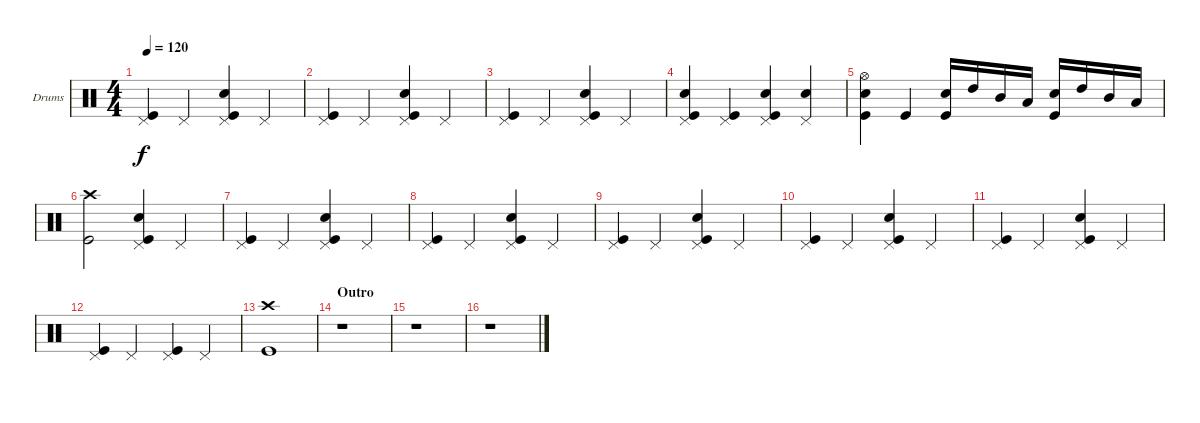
\bracketExtendMode groupsimilarinstruments
\firstSystemTrackNameOrientation horizontal
\otherSystemsTrackNameOrientation horizontal
\track ("Drumkit" "Drums") {instrument percussion}
\staff {score}
\articulation defaults
\ts (4 4)
\tempo 120
\clef neutral
\ks c
("Pedal Hi-Hat (hit)" "Kick (hit)").4{dy f} "Pedal Hi-Hat (hit)".4 ("Pedal Hi-Hat (hit)" "Snare (hit) 2" "Kick (hit)").4 "Pedal Hi-Hat (hit)".4 |
("Pedal Hi-Hat (hit)" "Kick (hit)").4 "Pedal Hi-Hat (hit)".4 ("Pedal Hi-Hat (hit)" "Snare (hit) 2" "Kick (hit)").4 "Pedal Hi-Hat (hit)".4 |
("Pedal Hi-Hat (hit)" "Kick (hit)").4 "Pedal Hi-Hat (hit)".4 ("Pedal Hi-Hat (hit)" "Snare (hit) 2" "Kick (hit)").4 "Pedal Hi-Hat (hit)".4 |
("Pedal Hi-Hat (hit)" "Snare (hit) 2" "Kick (hit)").4 ("Pedal Hi-Hat (hit)" "Kick (hit)").4 ("Pedal Hi-Hat (hit)" "Snare (hit) 2" "Kick (hit)").4 ("Pedal Hi-Hat (hit)" "Snare (hit) 2").4 |
("Hi-Hat (open)" "Snare (hit) 2" "Kick (hit)").4 "Kick (hit)".4 ("Snare (hit) 2" "Kick (hit)").16 "High Tom (hit)".16 "Mid Tom (hit)".16 "Low Tom (hit)".16 ("Snare (hit) 2" "Kick (hit)").16 "High Tom (hit)".16 "Mid Tom (hit)".16 "Low Tom (hit)".16 |
("Crash high (hit)" "Kick (hit)").2 ("Pedal Hi-Hat (hit)" "Snare (hit) 2" "Kick (hit)").4 "Pedal Hi-Hat (hit)".4 |
("Pedal Hi-Hat (hit)" "Kick (hit)").4 "Pedal Hi-Hat (hit)".4 ("Pedal Hi-Hat (hit)" "Snare (hit) 2" "Kick (hit)").4 "Pedal Hi-Hat (hit)".4 |
("Pedal Hi-Hat (hit)" "Kick (hit)").4 "Pedal Hi-Hat (hit)".4 ("Pedal Hi-Hat (hit)" "Snare (hit) 2" "Kick (hit)").4 "Pedal Hi-Hat (hit)".4 |
("Pedal Hi-Hat (hit)" "Kick (hit)").4 "Pedal Hi-Hat (hit)".4 ("Pedal Hi-Hat (hit)" "Snare (hit) 2" "Kick (hit)").4 "Pedal Hi-Hat (hit)".4 |
("Pedal Hi-Hat (hit)" "Kick (hit)").4 "Pedal Hi-Hat (hit)".4 ("Pedal Hi-Hat (hit)" "Snare (hit) 2" "Kick (hit)").4 "Pedal Hi-Hat (hit)".4 |
("Pedal Hi-Hat (hit)" "Kick (hit)").4 "Pedal Hi-Hat (hit)".4 ("Pedal Hi-Hat (hit)" "Snare (hit) 2" "Kick (hit)").4 "Pedal Hi-Hat (hit)".4 |
("Pedal Hi-Hat (hit)" "Kick (hit)").4 "Pedal Hi-Hat (hit)".4 ("Pedal Hi-Hat (hit)" "Kick (hit)").4 "Pedal Hi-Hat (hit)".4 |
("Crash high (hit)" "Kick (hit)").1 |
\section ("" "Outro")
r.1 |
r.1 |
r.1
